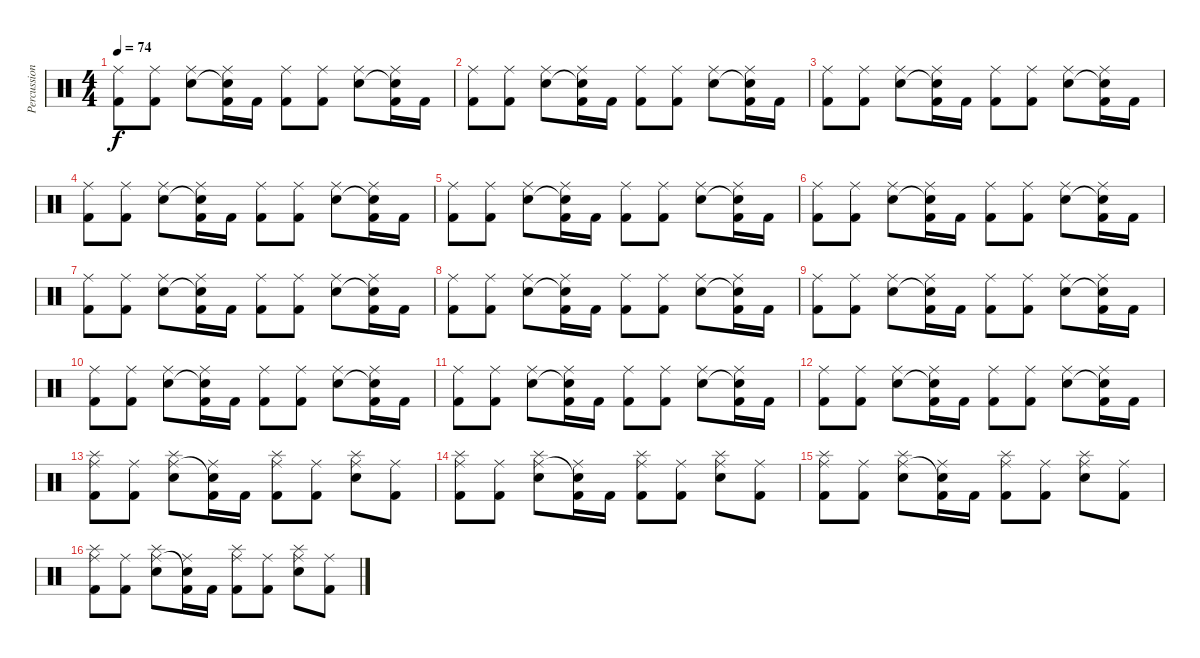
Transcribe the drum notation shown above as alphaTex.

\track ("Percussion" "Percussion") {instrument percussion}
\staff {score}
\articulation defaults
\ts (4 4)
\tempo 74
\clef neutral
\ks c
("Ride (middle)" "Kick (hit) 2").8{dy f} ("Ride (middle)" "Kick (hit) 2").8 ("Ride (middle)" "Electric Snare (hit)").8 ("Ride (middle)" "Snare (hit)"{t} "Kick (hit) 2").16 "Kick (hit) 2".16 ("Ride (middle)" "Kick (hit) 2").8 ("Ride (middle)" "Kick (hit) 2").8 ("Ride (middle)" "Electric Snare (hit)").8 ("Ride (middle)" "Snare (hit)"{t} "Kick (hit) 2").16 "Kick (hit) 2".16 |
("Ride (middle)" "Kick (hit) 2").8 ("Ride (middle)" "Kick (hit) 2").8 ("Ride (middle)" "Electric Snare (hit)").8 ("Ride (middle)" "Snare (hit)"{t} "Kick (hit) 2").16 "Kick (hit) 2".16 ("Ride (middle)" "Kick (hit) 2").8 ("Ride (middle)" "Kick (hit) 2").8 ("Ride (middle)" "Electric Snare (hit)").8 ("Ride (middle)" "Snare (hit)"{t} "Kick (hit) 2").16 "Kick (hit) 2".16 |
("Ride (middle)" "Kick (hit) 2").8 ("Ride (middle)" "Kick (hit) 2").8 ("Ride (middle)" "Electric Snare (hit)").8 ("Ride (middle)" "Snare (hit)"{t} "Kick (hit) 2").16 "Kick (hit) 2".16 ("Ride (middle)" "Kick (hit) 2").8 ("Ride (middle)" "Kick (hit) 2").8 ("Ride (middle)" "Electric Snare (hit)").8 ("Ride (middle)" "Snare (hit)"{t} "Kick (hit) 2").16 "Kick (hit) 2".16 |
("Ride (middle)" "Kick (hit) 2").8 ("Ride (middle)" "Kick (hit) 2").8 ("Ride (middle)" "Electric Snare (hit)").8 ("Ride (middle)" "Snare (hit)"{t} "Kick (hit) 2").16 "Kick (hit) 2".16 ("Ride (middle)" "Kick (hit) 2").8 ("Ride (middle)" "Kick (hit) 2").8 ("Ride (middle)" "Electric Snare (hit)").8 ("Ride (middle)" "Snare (hit)"{t} "Kick (hit) 2").16 "Kick (hit) 2".16 |
("Ride (middle)" "Kick (hit) 2").8 ("Ride (middle)" "Kick (hit) 2").8 ("Ride (middle)" "Electric Snare (hit)").8 ("Ride (middle)" "Snare (hit)"{t} "Kick (hit) 2").16 "Kick (hit) 2".16 ("Ride (middle)" "Kick (hit) 2").8 ("Ride (middle)" "Kick (hit) 2").8 ("Ride (middle)" "Electric Snare (hit)").8 ("Ride (middle)" "Snare (hit)"{t} "Kick (hit) 2").16 "Kick (hit) 2".16 |
("Ride (middle)" "Kick (hit) 2").8 ("Ride (middle)" "Kick (hit) 2").8 ("Ride (middle)" "Electric Snare (hit)").8 ("Ride (middle)" "Snare (hit)"{t} "Kick (hit) 2").16 "Kick (hit) 2".16 ("Ride (middle)" "Kick (hit) 2").8 ("Ride (middle)" "Kick (hit) 2").8 ("Ride (middle)" "Electric Snare (hit)").8 ("Ride (middle)" "Snare (hit)"{t} "Kick (hit) 2").16 "Kick (hit) 2".16 |
("Ride (middle)" "Kick (hit) 2").8 ("Ride (middle)" "Kick (hit) 2").8 ("Ride (middle)" "Electric Snare (hit)").8 ("Ride (middle)" "Snare (hit)"{t} "Kick (hit) 2").16 "Kick (hit) 2".16 ("Ride (middle)" "Kick (hit) 2").8 ("Ride (middle)" "Kick (hit) 2").8 ("Ride (middle)" "Electric Snare (hit)").8 ("Ride (middle)" "Snare (hit)"{t} "Kick (hit) 2").16 "Kick (hit) 2".16 |
("Ride (middle)" "Kick (hit) 2").8 ("Ride (middle)" "Kick (hit) 2").8 ("Ride (middle)" "Electric Snare (hit)").8 ("Ride (middle)" "Snare (hit)"{t} "Kick (hit) 2").16 "Kick (hit) 2".16 ("Ride (middle)" "Kick (hit) 2").8 ("Ride (middle)" "Kick (hit) 2").8 ("Ride (middle)" "Electric Snare (hit)").8 ("Ride (middle)" "Snare (hit)"{t} "Kick (hit) 2").16 "Kick (hit) 2".16 |
("Ride (middle)" "Kick (hit) 2").8 ("Ride (middle)" "Kick (hit) 2").8 ("Ride (middle)" "Electric Snare (hit)").8 ("Ride (middle)" "Snare (hit)"{t} "Kick (hit) 2").16 "Kick (hit) 2".16 ("Ride (middle)" "Kick (hit) 2").8 ("Ride (middle)" "Kick (hit) 2").8 ("Ride (middle)" "Electric Snare (hit)").8 ("Ride (middle)" "Snare (hit)"{t} "Kick (hit) 2").16 "Kick (hit) 2".16 |
("Ride (middle)" "Kick (hit) 2").8 ("Ride (middle)" "Kick (hit) 2").8 ("Ride (middle)" "Electric Snare (hit)").8 ("Ride (middle)" "Snare (hit)"{t} "Kick (hit) 2").16 "Kick (hit) 2".16 ("Ride (middle)" "Kick (hit) 2").8 ("Ride (middle)" "Kick (hit) 2").8 ("Ride (middle)" "Electric Snare (hit)").8 ("Ride (middle)" "Snare (hit)"{t} "Kick (hit) 2").16 "Kick (hit) 2".16 |
("Ride (middle)" "Kick (hit) 2").8 ("Ride (middle)" "Kick (hit) 2").8 ("Ride (middle)" "Electric Snare (hit)").8 ("Ride (middle)" "Snare (hit)"{t} "Kick (hit) 2").16 "Kick (hit) 2".16 ("Ride (middle)" "Kick (hit) 2").8 ("Ride (middle)" "Kick (hit) 2").8 ("Ride (middle)" "Electric Snare (hit)").8 ("Ride (middle)" "Snare (hit)"{t} "Kick (hit) 2").16 "Kick (hit) 2".16 |
("Ride (middle)" "Kick (hit) 2").8 ("Ride (middle)" "Kick (hit) 2").8 ("Ride (middle)" "Electric Snare (hit)").8 ("Ride (middle)" "Snare (hit)"{t} "Kick (hit) 2").16 "Kick (hit) 2".16 ("Ride (middle)" "Kick (hit) 2").8 ("Ride (middle)" "Kick (hit) 2").8 ("Ride (middle)" "Electric Snare (hit)").8 ("Ride (middle)" "Snare (hit)"{t} "Kick (hit) 2").16 "Kick (hit) 2".16 |
("Splash (hit)" "Ride (middle)" "Kick (hit) 2").8 ("Ride (middle)" "Kick (hit) 2").8 ("Splash (hit)" "Ride (middle)" "Electric Snare (hit)").8 ("Ride (middle)" "Snare (hit)"{t} "Kick (hit) 2").16 "Kick (hit) 2".16 ("Splash (hit)" "Ride (middle)" "Kick (hit) 2").8 ("Ride (middle)" "Kick (hit) 2").8 ("Splash (hit)" "Ride (middle)" "Electric Snare (hit)").8 ("Ride (middle)" "Kick (hit) 2").8 |
("Splash (hit)" "Ride (middle)" "Kick (hit) 2").8 ("Ride (middle)" "Kick (hit) 2").8 ("Splash (hit)" "Ride (middle)" "Electric Snare (hit)").8 ("Ride (middle)" "Snare (hit)"{t} "Kick (hit) 2").16 "Kick (hit) 2".16 ("Splash (hit)" "Ride (middle)" "Kick (hit) 2").8 ("Ride (middle)" "Kick (hit) 2").8 ("Splash (hit)" "Ride (middle)" "Electric Snare (hit)").8 ("Ride (middle)" "Kick (hit) 2").8 |
("Splash (hit)" "Ride (middle)" "Kick (hit) 2").8 ("Ride (middle)" "Kick (hit) 2").8 ("Splash (hit)" "Ride (middle)" "Electric Snare (hit)").8 ("Ride (middle)" "Snare (hit)"{t} "Kick (hit) 2").16 "Kick (hit) 2".16 ("Splash (hit)" "Ride (middle)" "Kick (hit) 2").8 ("Ride (middle)" "Kick (hit) 2").8 ("Splash (hit)" "Ride (middle)" "Electric Snare (hit)").8 ("Ride (middle)" "Kick (hit) 2").8 |
("Splash (hit)" "Ride (middle)" "Kick (hit) 2").8 ("Ride (middle)" "Kick (hit) 2").8 ("Splash (hit)" "Ride (middle)" "Electric Snare (hit)").8 ("Ride (middle)" "Snare (hit)"{t} "Kick (hit) 2").16 "Kick (hit) 2".16 ("Splash (hit)" "Ride (middle)" "Kick (hit) 2").8 ("Ride (middle)" "Kick (hit) 2").8 ("Splash (hit)" "Ride (middle)" "Electric Snare (hit)").8 ("Ride (middle)" "Kick (hit) 2").8
